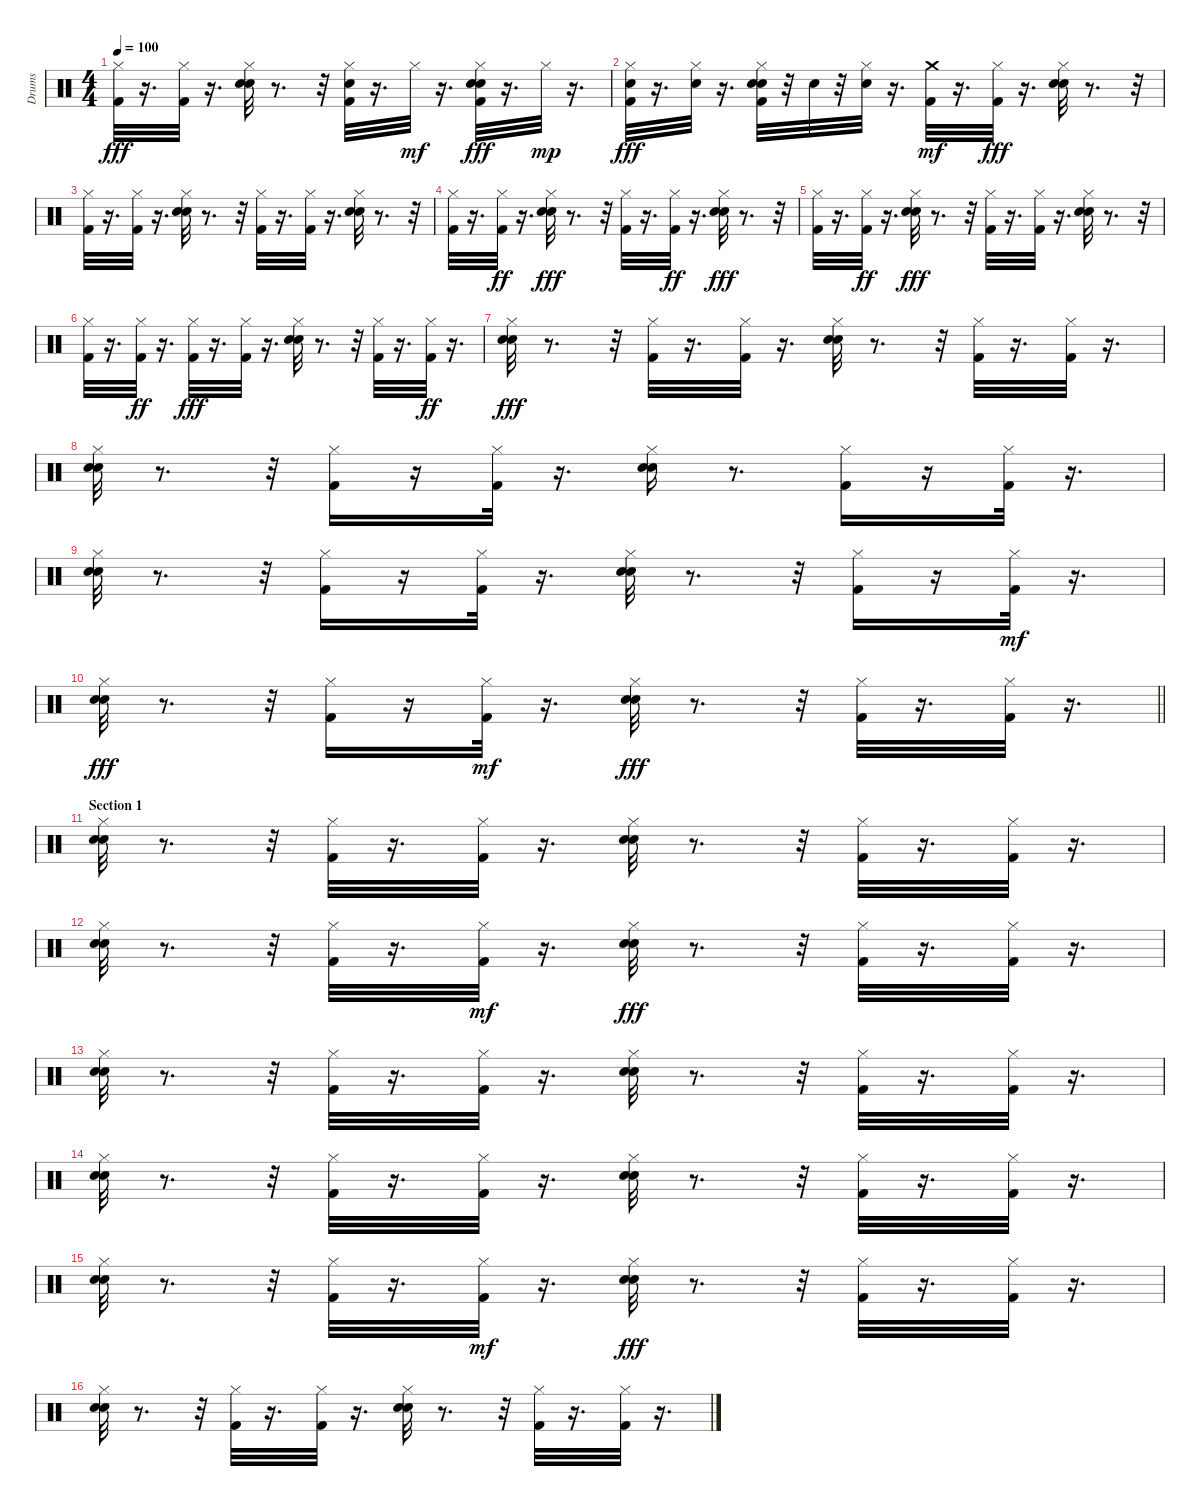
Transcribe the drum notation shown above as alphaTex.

\track ("Drums" "Drums") {instrument percussion}
\staff {score}
\articulation defaults
\ts (4 4)
\tempo 100
\clef neutral
\ks c
("Hi-Hat (closed)" "Kick (hit) 2").32{dy fff} r.16{d} ("Hi-Hat (closed)" "Kick (hit) 2").32 r.16{d} ("Snare (hit) 2" "Hand Clap (hit)" "Hi-Hat (closed)").32 r.8{d} r.32 ("Kick (hit) 2" "Snare (hit) 2" "Hi-Hat (closed)").32 r.16{d} "Hi-Hat (closed)".32{dy mf} r.16{d} ("Hi-Hat (closed)" "Hand Clap (hit)" "Snare (hit) 2" "Kick (hit) 2").32{dy fff} r.16{d} "Hi-Hat (closed)".32{dy mp} r.16{d} |
("Kick (hit) 2" "Hi-Hat (closed)" "Snare (hit) 2").32{dy fff} r.16{d} ("Hi-Hat (closed)" "Snare (hit) 2").32 r.16{d} ("Kick (hit) 2" "Hi-Hat (closed)" "Snare (hit) 2" "Hand Clap (hit)").32 r.32 "Snare (hit) 2".32 r.32 ("Snare (hit) 2" "Hi-Hat (closed)").32 r.16{d} ("Kick (hit) 2" "Crash medium (hit)").32{dy mf} r.16{d} ("Hi-Hat (closed)" "Kick (hit) 2").32{dy fff} r.16{d} ("Hi-Hat (closed)" "Snare (hit) 2" "Hand Clap (hit)").32 r.8{d} r.32 |
("Kick (hit) 2" "Hi-Hat (closed)").32 r.16{d} ("Hi-Hat (closed)" "Kick (hit) 2").32 r.16{d} ("Hand Clap (hit)" "Snare (hit) 2" "Hi-Hat (closed)").32 r.8{d} r.32 ("Kick (hit) 2" "Hi-Hat (closed)").32 r.16{d} ("Hi-Hat (closed)" "Kick (hit) 2").32 r.16{d} ("Hand Clap (hit)" "Snare (hit) 2" "Hi-Hat (closed)").32 r.8{d} r.32 |
("Hi-Hat (closed)" "Kick (hit) 2").32 r.16{d} ("Kick (hit) 2" "Hi-Hat (closed)").32{dy ff} r.16{d} ("Snare (hit) 2" "Hi-Hat (closed)" "Hand Clap (hit)").32{dy fff} r.8{d} r.32 ("Kick (hit) 2" "Hi-Hat (closed)").32 r.16{d} ("Kick (hit) 2" "Hi-Hat (closed)").32{dy ff} r.16{d} ("Hi-Hat (closed)" "Hand Clap (hit)" "Snare (hit) 2").32{dy fff} r.8{d} r.32 |
("Kick (hit) 2" "Hi-Hat (closed)").32 r.16{d} ("Kick (hit) 2" "Hi-Hat (closed)").32{dy ff} r.16{d} ("Hand Clap (hit)" "Snare (hit) 2" "Hi-Hat (closed)").32{dy fff} r.8{d} r.32 ("Kick (hit) 2" "Hi-Hat (closed)").32 r.16{d} ("Hi-Hat (closed)" "Kick (hit) 2").32 r.16{d} ("Hi-Hat (closed)" "Snare (hit) 2" "Hand Clap (hit)").32 r.8{d} r.32 |
("Kick (hit) 2" "Hi-Hat (closed)").32 r.16{d} ("Hi-Hat (closed)" "Kick (hit) 2").32{dy ff} r.16{d} ("Kick (hit) 2" "Hi-Hat (closed)").32{dy fff} r.16{d} ("Hi-Hat (closed)" "Kick (hit) 2").32 r.16{d} ("Hand Clap (hit)" "Snare (hit) 2" "Hi-Hat (closed)").32 r.8{d} r.32 ("Kick (hit) 2" "Hi-Hat (closed)").32 r.16{d} ("Kick (hit) 2" "Hi-Hat (closed)").32{dy ff} r.16{d} |
("Snare (hit) 2" "Hi-Hat (closed)" "Hand Clap (hit)").32{dy fff} r.8{d} r.32 ("Hi-Hat (closed)" "Kick (hit) 2").32 r.16{d} ("Hi-Hat (closed)" "Kick (hit) 2").32 r.16{d} ("Hand Clap (hit)" "Hi-Hat (closed)" "Snare (hit) 2").32 r.8{d} r.32 ("Hi-Hat (closed)" "Kick (hit) 2").32 r.16{d} ("Kick (hit) 2" "Hi-Hat (closed)").32 r.16{d} |
("Snare (hit) 2" "Hand Clap (hit)" "Hi-Hat (closed)").32 r.8{d} r.32 ("Hi-Hat (closed)" "Kick (hit) 2").16 r.16 ("Hi-Hat (closed)" "Kick (hit) 2").32 r.16{d} ("Hi-Hat (closed)" "Hand Clap (hit)" "Snare (hit) 2").16 r.8{d} ("Hi-Hat (closed)" "Kick (hit) 2").16 r.16 ("Hi-Hat (closed)" "Kick (hit) 2").32 r.16{d} |
("Hand Clap (hit)" "Hi-Hat (closed)" "Snare (hit) 2").32 r.8{d} r.32 ("Kick (hit) 2" "Hi-Hat (closed)").16 r.16 ("Hi-Hat (closed)" "Kick (hit) 2").32 r.16{d} ("Hi-Hat (closed)" "Snare (hit) 2" "Hand Clap (hit)").32 r.8{d} r.32 ("Hi-Hat (closed)" "Kick (hit) 2").16 r.16 ("Kick (hit) 2" "Hi-Hat (closed)").32{dy mf} r.16{d} |
\barLineRight lightlight
("Hand Clap (hit)" "Hi-Hat (closed)" "Snare (hit) 2").32{dy fff} r.8{d} r.32 ("Kick (hit) 2" "Hi-Hat (closed)").16 r.16 ("Kick (hit) 2" "Hi-Hat (closed)").32{dy mf} r.16{d} ("Snare (hit) 2" "Hand Clap (hit)" "Hi-Hat (closed)").32{dy fff} r.8{d} r.32 ("Hi-Hat (closed)" "Kick (hit) 2").32 r.16{d} ("Hi-Hat (closed)" "Kick (hit) 2").32 r.16{d} |
\section ("" "Section 1")
("Snare (hit) 2" "Hi-Hat (closed)" "Hand Clap (hit)").32 r.8{d} r.32 ("Kick (hit) 2" "Hi-Hat (closed)").32 r.16{d} ("Hi-Hat (closed)" "Kick (hit) 2").32 r.16{d} ("Snare (hit) 2" "Hand Clap (hit)" "Hi-Hat (closed)").32 r.8{d} r.32 ("Hi-Hat (closed)" "Kick (hit) 2").32 r.16{d} ("Hi-Hat (closed)" "Kick (hit) 2").32 r.16{d} |
("Hand Clap (hit)" "Snare (hit) 2" "Hi-Hat (closed)").32 r.8{d} r.32 ("Kick (hit) 2" "Hi-Hat (closed)").32 r.16{d} ("Kick (hit) 2" "Hi-Hat (closed)").32{dy mf} r.16{d} ("Snare (hit) 2" "Hi-Hat (closed)" "Hand Clap (hit)").32{dy fff} r.8{d} r.32 ("Kick (hit) 2" "Hi-Hat (closed)").32 r.16{d} ("Hi-Hat (closed)" "Kick (hit) 2").32 r.16{d} |
("Snare (hit) 2" "Hi-Hat (closed)" "Hand Clap (hit)").32 r.8{d} r.32 ("Kick (hit) 2" "Hi-Hat (closed)").32 r.16{d} ("Kick (hit) 2" "Hi-Hat (closed)").32 r.16{d} ("Hi-Hat (closed)" "Snare (hit) 2" "Hand Clap (hit)").32 r.8{d} r.32 ("Hi-Hat (closed)" "Kick (hit) 2").32 r.16{d} ("Hi-Hat (closed)" "Kick (hit) 2").32 r.16{d} |
("Hi-Hat (closed)" "Hand Clap (hit)" "Snare (hit) 2").32 r.8{d} r.32 ("Hi-Hat (closed)" "Kick (hit) 2").32 r.16{d} ("Kick (hit) 2" "Hi-Hat (closed)").32 r.16{d} ("Hi-Hat (closed)" "Snare (hit) 2" "Hand Clap (hit)").32 r.8{d} r.32 ("Kick (hit) 2" "Hi-Hat (closed)").32 r.16{d} ("Hi-Hat (closed)" "Kick (hit) 2").32 r.16{d} |
("Snare (hit) 2" "Hand Clap (hit)" "Hi-Hat (closed)").32 r.8{d} r.32 ("Kick (hit) 2" "Hi-Hat (closed)").32 r.16{d} ("Kick (hit) 2" "Hi-Hat (closed)").32{dy mf} r.16{d} ("Snare (hit) 2" "Hand Clap (hit)" "Hi-Hat (closed)").32{dy fff} r.8{d} r.32 ("Hi-Hat (closed)" "Kick (hit) 2").32 r.16{d} ("Kick (hit) 2" "Hi-Hat (closed)").32 r.16{d} |
("Hi-Hat (closed)" "Snare (hit) 2" "Hand Clap (hit)").32 r.8{d} r.32 ("Kick (hit) 2" "Hi-Hat (closed)").32 r.16{d} ("Hi-Hat (closed)" "Kick (hit) 2").32 r.16{d} ("Hand Clap (hit)" "Hi-Hat (closed)" "Snare (hit) 2").32 r.8{d} r.32 ("Kick (hit) 2" "Hi-Hat (closed)").32 r.16{d} ("Hi-Hat (closed)" "Kick (hit) 2").32 r.16{d}
